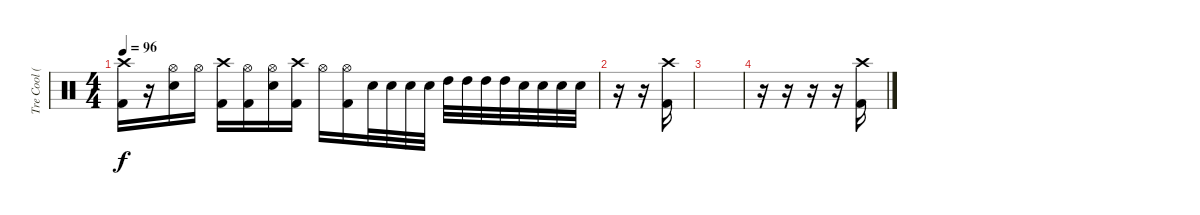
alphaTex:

\track ("Tre Cool (Drums)" "Tre Cool (") {instrument percussion}
\staff {score}
\articulation defaults
\ts (4 4)
\tempo 96
\clef neutral
\ks c
("Crash high (hit)" "Kick (hit) 2").16{dy f} r.16 ("Hi-Hat (open)" "Electric Snare (hit)").16 "Hi-Hat (open)".16 ("Crash high (hit)" "Kick (hit) 2").16 ("Hi-Hat (open)" "Kick (hit) 2").16 ("Hi-Hat (open)" "Electric Snare (hit)").16 ("Crash high (hit)" "Kick (hit) 2").16 "Hi-Hat (open)".16 ("Hi-Hat (open)" "Kick (hit) 2").16 "Electric Snare (hit)".32 "Electric Snare (hit)".32 "Electric Snare (hit)".32 "Electric Snare (hit)".32 "High Tom (hit)".32 "High Tom (hit)".32 "High Tom (hit)".32 "High Tom (hit)".32 "Electric Snare (hit)".32 "Electric Snare (hit)".32 "Electric Snare (hit)".32 "Electric Snare (hit)".32 |
r.16 r.16 ("Crash high (hit)" "Kick (hit) 2").16 |
|
r.16 r.16 r.16 r.16 ("Crash high (hit)" "Kick (hit) 2").16
